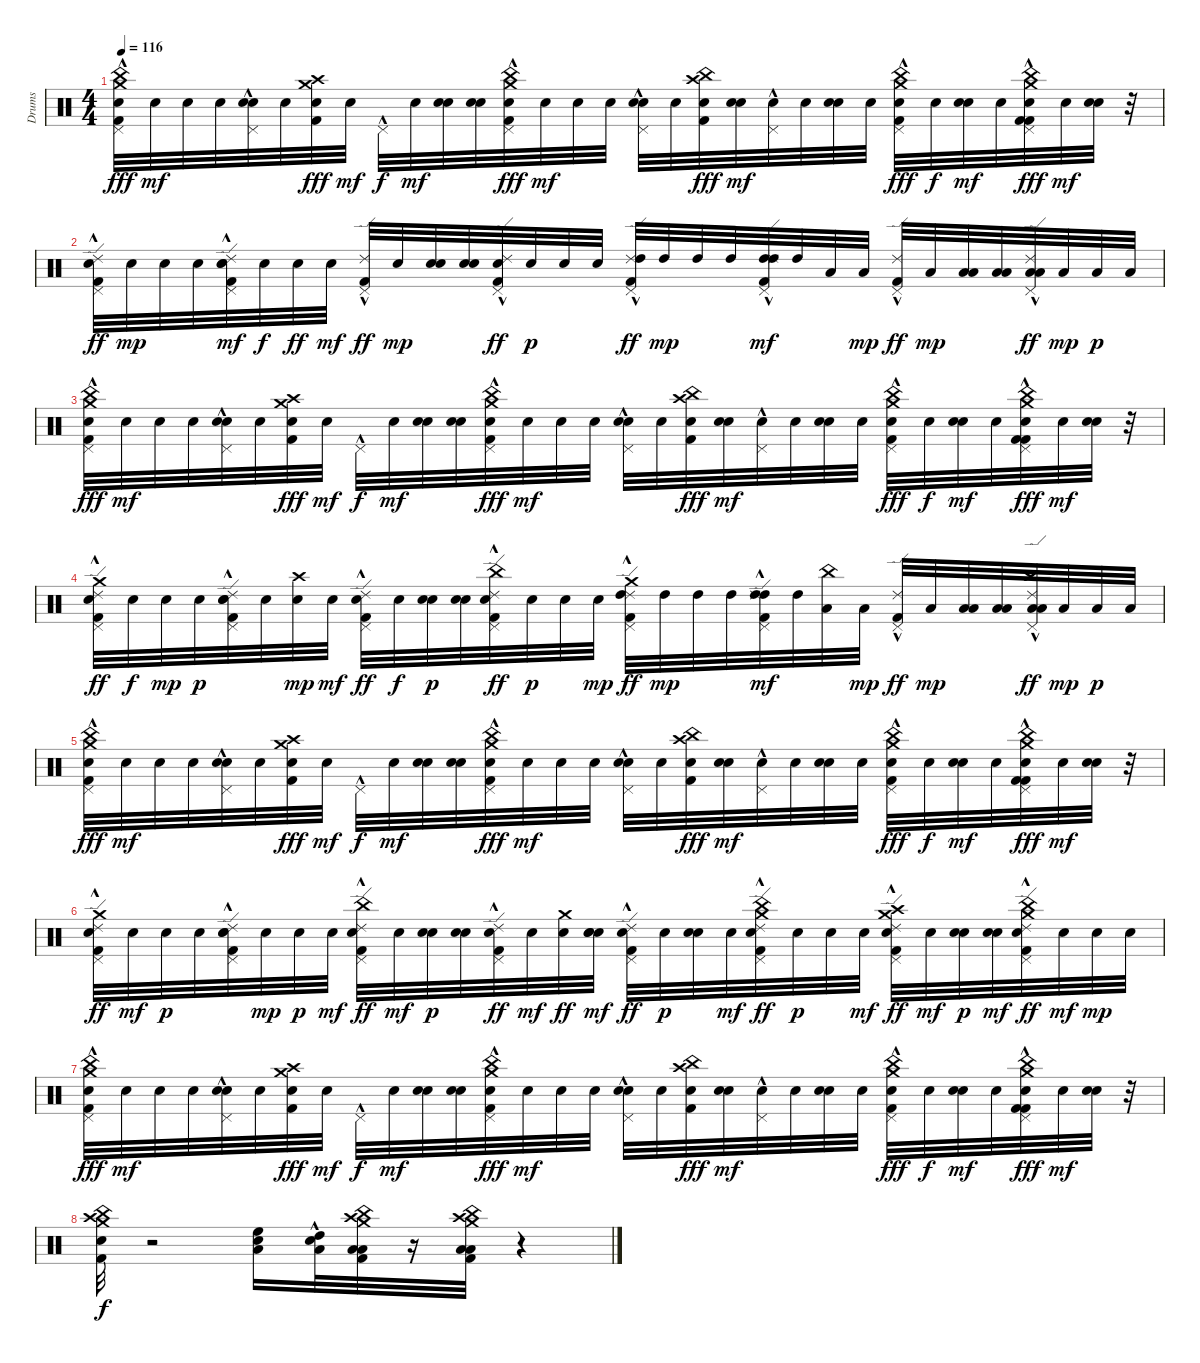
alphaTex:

\track ("Drums" "Drums") {instrument percussion}
\staff {score}
\articulation defaults
\ts (4 4)
\tempo 116
\clef neutral
\ks c
("China (hit)" "Crash medium (hit)" "Electric Snare (hit)" "Kick (hit) 2"{hac} "Pedal Hi-Hat (hit)"{hac}).32{dy fff} "Electric Snare (hit)".32{dy mf} "Electric Snare (hit)".32 "Electric Snare (hit)".32 ("Electric Snare (hit)" "Pedal Hi-Hat (hit)"{hac} "Electric Snare (hit)").32 "Electric Snare (hit)".32 ("Crash medium (hit)" "Crash high (hit)" "Electric Snare (hit)" "Kick (hit) 2").32{dy fff} "Electric Snare (hit)".32{dy mf} "Pedal Hi-Hat (hit)"{hac}.32{dy f} "Electric Snare (hit)".32{dy mf} ("Electric Snare (hit)" "Electric Snare (hit)").32 ("Electric Snare (hit)" "Electric Snare (hit)").32 ("China (hit)" "Crash medium (hit)" "Electric Snare (hit)" "Kick (hit) 2" "Pedal Hi-Hat (hit)"{hac}).32{dy fff} "Electric Snare (hit)".32{dy mf} "Electric Snare (hit)".32 "Electric Snare (hit)".32 ("Electric Snare (hit)" "Pedal Hi-Hat (hit)"{hac} "Electric Snare (hit)").32 "Electric Snare (hit)".32 ("China (hit)" "Crash high (hit)" "Electric Snare (hit)" "Kick (hit) 2").32{dy fff} ("Electric Snare (hit)" "Electric Snare (hit)").32{dy mf} ("Electric Snare (hit)" "Pedal Hi-Hat (hit)"{hac}).32 "Electric Snare (hit)".32 ("Electric Snare (hit)" "Electric Snare (hit)").32 "Electric Snare (hit)".32 ("China (hit)" "Crash medium (hit)" "Electric Snare (hit)" "Kick (hit) 2" "Pedal Hi-Hat (hit)"{hac}).32{dy fff} "Electric Snare (hit)".32{dy f} ("Electric Snare (hit)" "Electric Snare (hit)").32{dy mf} "Electric Snare (hit)".32 ("China (hit)" "Crash medium (hit)" "Kick (hit) 2" "Electric Snare (hit)" "Kick (hit) 2" "Pedal Hi-Hat (hit)"{hac}).32{dy fff} "Electric Snare (hit)".32{dy mf} ("Electric Snare (hit)" "Electric Snare (hit)").32 r.32 |
("Ride (edge) 2" "Electric Snare (hit)" "Kick (hit) 2" "Pedal Hi-Hat (hit)"{hac}).32{dy ff} "Electric Snare (hit)".32{dy mp} "Electric Snare (hit)".32 "Electric Snare (hit)".32 ("Electric Snare (hit)" "Ride (edge) 2" "Kick (hit) 2" "Pedal Hi-Hat (hit)"{hac} "Electric Snare (hit)").32{dy mf} "Electric Snare (hit)".32{dy f} "Electric Snare (hit)".32{dy ff} "Electric Snare (hit)".32{dy mf} ("Ride (edge) 2" "Kick (hit) 2" "Pedal Hi-Hat (hit)"{hac}).32{dy ff} "Electric Snare (hit)".32{dy mp} ("Electric Snare (hit)" "Electric Snare (hit)").32 ("Electric Snare (hit)" "Electric Snare (hit)").32 ("Ride (edge) 2" "Electric Snare (hit)" "Kick (hit) 2" "Pedal Hi-Hat (hit)"{hac}).32{dy ff} "Electric Snare (hit)".32{dy p} "Electric Snare (hit)".32 "Electric Snare (hit)".32 ("Ride (edge) 2" "High Tom (hit)" "Kick (hit) 2" "Pedal Hi-Hat (hit)"{hac}).32{dy ff} "High Tom (hit)".32{dy mp} "High Tom (hit)".32 "High Tom (hit)".32 ("High Tom (hit)" "Ride (edge) 2" "Kick (hit) 2" "Pedal Hi-Hat (hit)"{hac} "High Tom (hit)").32{dy mf} "High Tom (hit)".32 "Low Tom (hit)".32 "Low Tom (hit)".32{dy mp} ("Ride (edge) 2" "Kick (hit) 2" "Pedal Hi-Hat (hit)"{hac}).32{dy ff} "Low Tom (hit)".32{dy mp} ("Low Tom (hit)" "Low Tom (hit)").32 ("Low Tom (hit)" "Low Tom (hit)").32 ("Ride (edge) 2" "Low Tom (hit)" "Low Floor Tom (hit)" "Pedal Hi-Hat (hit)"{hac}).32{dy ff} "Low Floor Tom (hit)".32{dy mp} "Low Floor Tom (hit)".32{dy p} "Low Floor Tom (hit)".32 |
("China (hit)" "Crash medium (hit)" "Electric Snare (hit)" "Kick (hit) 2"{hac} "Pedal Hi-Hat (hit)"{hac}).32{dy fff} "Electric Snare (hit)".32{dy mf} "Electric Snare (hit)".32 "Electric Snare (hit)".32 ("Electric Snare (hit)" "Pedal Hi-Hat (hit)"{hac} "Electric Snare (hit)").32 "Electric Snare (hit)".32 ("Crash medium (hit)" "Crash high (hit)" "Electric Snare (hit)" "Kick (hit) 2").32{dy fff} "Electric Snare (hit)".32{dy mf} "Pedal Hi-Hat (hit)"{hac}.32{dy f} "Electric Snare (hit)".32{dy mf} ("Electric Snare (hit)" "Electric Snare (hit)").32 ("Electric Snare (hit)" "Electric Snare (hit)").32 ("China (hit)" "Crash medium (hit)" "Electric Snare (hit)" "Kick (hit) 2" "Pedal Hi-Hat (hit)"{hac}).32{dy fff} "Electric Snare (hit)".32{dy mf} "Electric Snare (hit)".32 "Electric Snare (hit)".32 ("Electric Snare (hit)" "Pedal Hi-Hat (hit)"{hac} "Electric Snare (hit)").32 "Electric Snare (hit)".32 ("China (hit)" "Crash high (hit)" "Electric Snare (hit)" "Kick (hit) 2").32{dy fff} ("Electric Snare (hit)" "Electric Snare (hit)").32{dy mf} ("Electric Snare (hit)" "Pedal Hi-Hat (hit)"{hac}).32 "Electric Snare (hit)".32 ("Electric Snare (hit)" "Electric Snare (hit)").32 "Electric Snare (hit)".32 ("China (hit)" "Crash medium (hit)" "Electric Snare (hit)" "Kick (hit) 2" "Pedal Hi-Hat (hit)"{hac}).32{dy fff} "Electric Snare (hit)".32{dy f} ("Electric Snare (hit)" "Electric Snare (hit)").32{dy mf} "Electric Snare (hit)".32 ("China (hit)" "Crash medium (hit)" "Kick (hit) 2" "Electric Snare (hit)" "Kick (hit) 2" "Pedal Hi-Hat (hit)"{hac}).32{dy fff} "Electric Snare (hit)".32{dy mf} ("Electric Snare (hit)" "Electric Snare (hit)").32 r.32 |
("Ride (edge) 2" "Crash medium (hit)" "Electric Snare (hit)" "Kick (hit) 2" "Pedal Hi-Hat (hit)"{hac}).32{dy ff} "Electric Snare (hit)".32{dy f} "Electric Snare (hit)".32{dy mp} "Electric Snare (hit)".32{dy p} ("Electric Snare (hit)" "Ride (edge) 2" "Kick (hit) 2" "Pedal Hi-Hat (hit)"{hac} "Electric Snare (hit)").32 "Electric Snare (hit)".32 ("Crash high (hit)" "Electric Snare (hit)").32{dy mp} "Electric Snare (hit)".32{dy mf} ("Ride (edge) 2" "Electric Snare (hit)" "Kick (hit) 2" "Pedal Hi-Hat (hit)"{hac}).32{dy ff} "Electric Snare (hit)".32{dy f} ("Electric Snare (hit)" "Electric Snare (hit)").32{dy p} ("Electric Snare (hit)" "Electric Snare (hit)").32 ("Ride (edge) 2" "China (hit)" "Electric Snare (hit)" "Kick (hit) 2" "Pedal Hi-Hat (hit)"{hac}).32{dy ff} "Electric Snare (hit)".32{dy p} "Electric Snare (hit)".32 "Electric Snare (hit)".32{dy mp} ("Ride (edge) 2" "Crash medium (hit)" "High Tom (hit)" "Kick (hit) 2" "Pedal Hi-Hat (hit)"{hac}).32{dy ff} "High Tom (hit)".32{dy mp} "High Tom (hit)".32 "High Tom (hit)".32 ("High Tom (hit)" "Ride (edge) 2" "Kick (hit) 2" "Pedal Hi-Hat (hit)"{hac} "High Tom (hit)").32{dy mf} "High Tom (hit)".32 ("China (hit)" "Low Tom (hit)").32 "Low Tom (hit)".32{dy mp} ("Ride (edge) 2" "Kick (hit) 2" "Pedal Hi-Hat (hit)"{hac}).32{dy ff} "Low Tom (hit)".32{dy mp} ("Low Tom (hit)" "Low Tom (hit)").32 ("Low Tom (hit)" "Low Tom (hit)").32 ("Ride (edge) 2" "Crash high (hit)" "Low Tom (hit)" "Low Floor Tom (hit)" "Pedal Hi-Hat (hit)"{hac}).32{dy ff} "Low Floor Tom (hit)".32{dy mp} "Low Floor Tom (hit)".32{dy p} "Low Floor Tom (hit)".32 |
("China (hit)" "Crash medium (hit)" "Electric Snare (hit)" "Kick (hit) 2"{hac} "Pedal Hi-Hat (hit)"{hac}).32{dy fff} "Electric Snare (hit)".32{dy mf} "Electric Snare (hit)".32 "Electric Snare (hit)".32 ("Electric Snare (hit)" "Pedal Hi-Hat (hit)"{hac} "Electric Snare (hit)").32 "Electric Snare (hit)".32 ("Crash medium (hit)" "Crash high (hit)" "Electric Snare (hit)" "Kick (hit) 2").32{dy fff} "Electric Snare (hit)".32{dy mf} "Pedal Hi-Hat (hit)"{hac}.32{dy f} "Electric Snare (hit)".32{dy mf} ("Electric Snare (hit)" "Electric Snare (hit)").32 ("Electric Snare (hit)" "Electric Snare (hit)").32 ("China (hit)" "Crash medium (hit)" "Electric Snare (hit)" "Kick (hit) 2" "Pedal Hi-Hat (hit)"{hac}).32{dy fff} "Electric Snare (hit)".32{dy mf} "Electric Snare (hit)".32 "Electric Snare (hit)".32 ("Electric Snare (hit)" "Pedal Hi-Hat (hit)"{hac} "Electric Snare (hit)").32 "Electric Snare (hit)".32 ("China (hit)" "Crash high (hit)" "Electric Snare (hit)" "Kick (hit) 2").32{dy fff} ("Electric Snare (hit)" "Electric Snare (hit)").32{dy mf} ("Electric Snare (hit)" "Pedal Hi-Hat (hit)"{hac}).32 "Electric Snare (hit)".32 ("Electric Snare (hit)" "Electric Snare (hit)").32 "Electric Snare (hit)".32 ("China (hit)" "Crash medium (hit)" "Electric Snare (hit)" "Kick (hit) 2" "Pedal Hi-Hat (hit)"{hac}).32{dy fff} "Electric Snare (hit)".32{dy f} ("Electric Snare (hit)" "Electric Snare (hit)").32{dy mf} "Electric Snare (hit)".32 ("China (hit)" "Crash medium (hit)" "Kick (hit) 2" "Electric Snare (hit)" "Kick (hit) 2" "Pedal Hi-Hat (hit)"{hac}).32{dy fff} "Electric Snare (hit)".32{dy mf} ("Electric Snare (hit)" "Electric Snare (hit)").32 r.32 |
("Ride (edge) 2" "Crash medium (hit)" "Electric Snare (hit)" "Kick (hit) 2" "Pedal Hi-Hat (hit)"{hac}).32{dy ff} "Electric Snare (hit)".32{dy mf} "Electric Snare (hit)".32{dy p} "Electric Snare (hit)".32 ("Electric Snare (hit)" "Ride (edge) 2" "Kick (hit) 2" "Pedal Hi-Hat (hit)"{hac} "Electric Snare (hit)").32 "Electric Snare (hit)".32{dy mp} "Electric Snare (hit)".32{dy p} "Electric Snare (hit)".32{dy mf} ("Ride (edge) 2" "China (hit)" "Electric Snare (hit)" "Kick (hit) 2" "Pedal Hi-Hat (hit)"{hac}).32{dy ff} "Electric Snare (hit)".32{dy mf} ("Electric Snare (hit)" "Electric Snare (hit)").32{dy p} ("Electric Snare (hit)" "Electric Snare (hit)").32 ("Ride (edge) 2" "Electric Snare (hit)" "Kick (hit) 2" "Pedal Hi-Hat (hit)"{hac}).32{dy ff} "Electric Snare (hit)".32{dy mf} ("Crash medium (hit)" "Electric Snare (hit)").32{dy ff} ("Electric Snare (hit)" "Electric Snare (hit)" "Electric Snare (hit)").32{dy mf} ("Ride (edge) 2" "Electric Snare (hit)" "Kick (hit) 2" "Pedal Hi-Hat (hit)"{hac}).32{dy ff} "Electric Snare (hit)".32{dy p} ("Electric Snare (hit)" "Electric Snare (hit)").32 "Electric Snare (hit)".32{dy mf} ("Ride (edge) 2" "China (hit)" "Crash medium (hit)" "Kick (hit) 2" "Pedal Hi-Hat (hit)"{hac} "Electric Snare (hit)").32{dy ff} "Electric Snare (hit)".32{dy p} "Electric Snare (hit)".32 "Electric Snare (hit)".32{dy mf} ("Ride (edge) 2" "Crash high (hit)" "Crash medium (hit)" "Electric Snare (hit)" "Kick (hit) 2" "Pedal Hi-Hat (hit)"{hac}).32{dy ff} "Electric Snare (hit)".32{dy mf} ("Electric Snare (hit)" "Electric Snare (hit)").32{dy p} ("Electric Snare (hit)" "Electric Snare (hit)").32{dy mf} ("Ride (edge) 2" "China (hit)" "Crash medium (hit)" "Electric Snare (hit)" "Kick (hit) 2" "Pedal Hi-Hat (hit)"{hac}).32{dy ff} "Electric Snare (hit)".32{dy mf} "Electric Snare (hit)".32{dy mp} "Electric Snare (hit)".32 |
("China (hit)" "Crash medium (hit)" "Electric Snare (hit)" "Kick (hit) 2"{hac} "Pedal Hi-Hat (hit)"{hac}).32{dy fff} "Electric Snare (hit)".32{dy mf} "Electric Snare (hit)".32 "Electric Snare (hit)".32 ("Electric Snare (hit)" "Pedal Hi-Hat (hit)"{hac} "Electric Snare (hit)").32 "Electric Snare (hit)".32 ("Crash medium (hit)" "Crash high (hit)" "Electric Snare (hit)" "Kick (hit) 2").32{dy fff} "Electric Snare (hit)".32{dy mf} "Pedal Hi-Hat (hit)"{hac}.32{dy f} "Electric Snare (hit)".32{dy mf} ("Electric Snare (hit)" "Electric Snare (hit)").32 ("Electric Snare (hit)" "Electric Snare (hit)").32 ("China (hit)" "Crash medium (hit)" "Electric Snare (hit)" "Kick (hit) 2" "Pedal Hi-Hat (hit)"{hac}).32{dy fff} "Electric Snare (hit)".32{dy mf} "Electric Snare (hit)".32 "Electric Snare (hit)".32 ("Electric Snare (hit)" "Pedal Hi-Hat (hit)"{hac} "Electric Snare (hit)").32 "Electric Snare (hit)".32 ("China (hit)" "Crash high (hit)" "Electric Snare (hit)" "Kick (hit) 2").32{dy fff} ("Electric Snare (hit)" "Electric Snare (hit)").32{dy mf} ("Electric Snare (hit)" "Pedal Hi-Hat (hit)"{hac}).32 "Electric Snare (hit)".32 ("Electric Snare (hit)" "Electric Snare (hit)").32 "Electric Snare (hit)".32 ("China (hit)" "Crash medium (hit)" "Electric Snare (hit)" "Kick (hit) 2" "Pedal Hi-Hat (hit)"{hac}).32{dy fff} "Electric Snare (hit)".32{dy f} ("Electric Snare (hit)" "Electric Snare (hit)").32{dy mf} "Electric Snare (hit)".32 ("China (hit)" "Crash medium (hit)" "Kick (hit) 2" "Electric Snare (hit)" "Kick (hit) 2" "Pedal Hi-Hat (hit)"{hac}).32{dy fff} "Electric Snare (hit)".32{dy mf} ("Electric Snare (hit)" "Electric Snare (hit)").32 r.32 |
("Crash high (hit)" "China (hit)" "Crash medium (hit)" "Kick (hit) 2" "Electric Snare (hit)").32{dy f} r.2 ("Electric Snare (hit)" "High Floor Tom (hit)" "Low Tom (hit)").16 ("High Tom (hit)" "Low Floor Tom (hit)" "Electric Snare (hit)"{hac}).32 ("Low Tom (hit)" "Low Floor Tom (hit)" "Crash medium (hit)" "Crash high (hit)" "China (hit)" "Kick (hit) 2").32 r.16 ("Low Tom (hit)" "Low Floor Tom (hit)" "Crash medium (hit)" "China (hit)" "Crash high (hit)" "Kick (hit) 2").32 r.4
